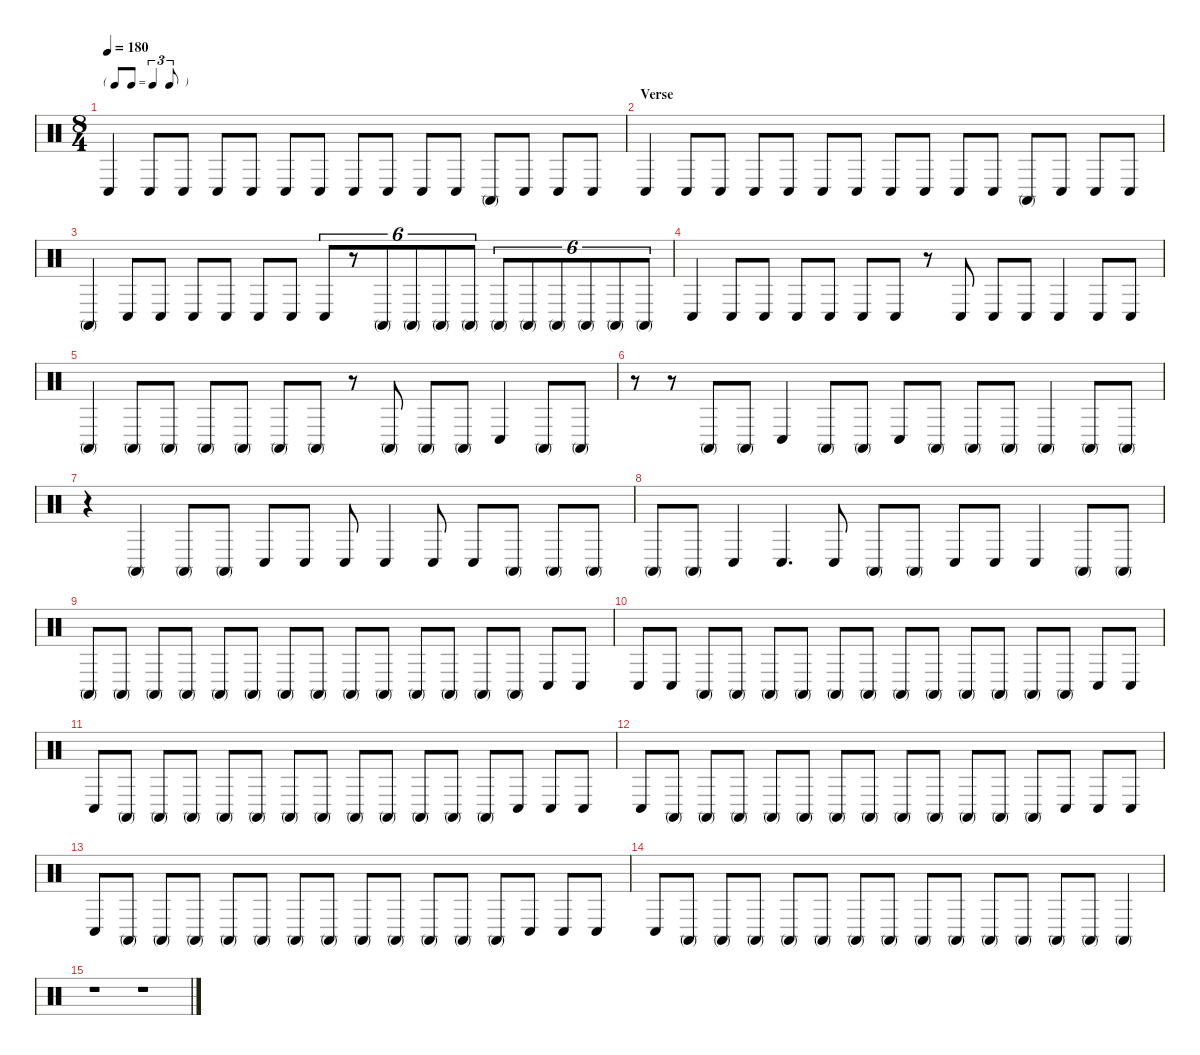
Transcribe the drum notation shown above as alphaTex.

\defaultSystemsLayout 4
\hideDynamics
\bracketExtendMode nobrackets
\singleTrackTrackNamePolicy hidden
\multiTrackTrackNamePolicy hidden
\firstSystemTrackNameMode fullname
\firstSystemTrackNameOrientation horizontal
\otherSystemsTrackNameOrientation horizontal
\track ("Congas" "drm.") {instrument percussion}
\staff {score}
\articulation defaults
\ts (8 4)
\tf triplet8th
\tempo 180
\clef neutral
\ks c "Conga low (hit)".4{dy f beam Up} "Conga low (hit)".8{beam Up} "Conga low (hit)".8{beam Up} "Conga low (hit)".8{beam Up} "Conga low (hit)".8{beam Up} "Conga low (hit)".8{beam Up} "Conga low (hit)".8{beam Up} "Conga low (hit)".8{beam Up} "Conga low (hit)".8{beam Up} "Conga low (hit)".8{beam Up} "Conga low (hit)".8{beam Up} "Conga high (mute)".8{beam Up} "Conga low (hit)".8{beam Up} "Conga low (hit)".8{beam Up} "Conga low (hit)".8{beam Up}
|
\section ("" "Verse")
"Conga low (hit)".4{beam Up} "Conga low (hit)".8{beam Up} "Conga low (hit)".8{beam Up} "Conga low (hit)".8{beam Up} "Conga low (hit)".8{beam Up} "Conga low (hit)".8{beam Up} "Conga low (hit)".8{beam Up} "Conga low (hit)".8{beam Up} "Conga low (hit)".8{beam Up} "Conga low (hit)".8{beam Up} "Conga low (hit)".8{beam Up} "Conga high (mute)".8{beam Up} "Conga low (hit)".8{beam Up} "Conga low (hit)".8{beam Up} "Conga low (hit)".8{beam Up} |
"Conga high (mute)".4{beam Up} "Conga low (hit)".8{beam Up} "Conga low (hit)".8{beam Up} "Conga low (hit)".8{beam Up} "Conga low (hit)".8{beam Up} "Conga low (hit)".8{beam Up} "Conga low (hit)".8{beam Up} "Conga low (hit)".8{tu (6 4) beam Up} r.8{tu (6 4) beam Up} "Conga high (mute)".8{tu (6 4) beam Up} "Conga high (mute)".8{tu (6 4) beam Up} "Conga high (mute)".8{tu (6 4) beam Up} "Conga high (mute)".8{tu (6 4) beam Up} "Conga high (mute)".8{tu (6 4) beam Up} "Conga high (mute)".8{tu (6 4) beam Up} "Conga high (mute)".8{tu (6 4) beam Up} "Conga high (mute)".8{tu (6 4) beam Up} "Conga high (mute)".8{tu (6 4) beam Up} "Conga high (mute)".8{tu (6 4) beam Up} |
"Conga low (hit)".4{beam Up} "Conga low (hit)".8{beam Up} "Conga low (hit)".8{beam Up} "Conga low (hit)".8{beam Up} "Conga low (hit)".8{beam Up} "Conga low (hit)".8{beam Up} "Conga low (hit)".8{beam Up} r.8{beam Up} "Conga low (hit)".8{beam Up} "Conga low (hit)".8{beam Up} "Conga low (hit)".8{beam Up} "Conga low (hit)".4{beam Up} "Conga low (hit)".8{beam Up} "Conga low (hit)".8{beam Up} |
"Conga high (mute)".4{beam Up} "Conga high (mute)".8{beam Up} "Conga high (mute)".8{beam Up} "Conga high (mute)".8{beam Up} "Conga high (mute)".8{beam Up} "Conga high (mute)".8{beam Up} "Conga high (mute)".8{beam Up} r.8{beam Up} "Conga high (mute)".8{beam Up} "Conga high (mute)".8{beam Up} "Conga high (mute)".8{beam Up} "Conga low (hit)".4{beam Up} "Conga high (mute)".8{beam Up} "Conga high (mute)".8{beam Up} |
r.8{beam Down} r.8{beam Down} "Conga high (mute)".8{beam Up} "Conga high (mute)".8{beam Up} "Conga low (hit)".4{beam Up} "Conga high (mute)".8{beam Up} "Conga high (mute)".8{beam Up} "Conga low (hit)".8{beam Up} "Conga high (mute)".8{beam Up} "Conga high (mute)".8{beam Up} "Conga high (mute)".8{beam Up} "Conga high (mute)".4{beam Up} "Conga high (mute)".8{beam Up} "Conga high (mute)".8{beam Up} |
r.4{beam Down} "Conga high (mute)".4{beam Up} "Conga high (mute)".8{beam Up} "Conga high (mute)".8{beam Up} "Conga low (hit)".8{beam Up} "Conga low (hit)".8{beam Up} "Conga low (hit)".8{beam Up} "Conga low (hit)".4{beam Up} "Conga low (hit)".8{beam Up} "Conga low (hit)".8{beam Up} "Conga high (mute)".8{beam Up} "Conga high (mute)".8{beam Up} "Conga high (mute)".8{beam Up} |
"Conga high (mute)".8{beam Up} "Conga high (mute)".8{beam Up} "Conga low (hit)".4{beam Up} "Conga low (hit)".4{d beam Up} "Conga low (hit)".8{beam Up} "Conga high (mute)".8{beam Up} "Conga high (mute)".8{beam Up} "Conga low (hit)".8{beam Up} "Conga low (hit)".8{beam Up} "Conga low (hit)".4{beam Up} "Conga high (mute)".8{beam Up} "Conga high (mute)".8{beam Up} |
"Conga high (mute)".8{beam Up} "Conga high (mute)".8{beam Up} "Conga high (mute)".8{beam Up} "Conga high (mute)".8{beam Up} "Conga high (mute)".8{beam Up} "Conga high (mute)".8{beam Up} "Conga high (mute)".8{beam Up} "Conga high (mute)".8{beam Up} "Conga high (mute)".8{beam Up} "Conga high (mute)".8{beam Up} "Conga high (mute)".8{beam Up} "Conga high (mute)".8{beam Up} "Conga high (mute)".8{beam Up} "Conga high (mute)".8{beam Up} "Conga low (hit)".8{beam Up} "Conga low (hit)".8{beam Up} |
"Conga low (hit)".8{beam Up} "Conga low (hit)".8{beam Up} "Conga high (mute)".8{beam Up} "Conga high (mute)".8{beam Up} "Conga high (mute)".8{beam Up} "Conga high (mute)".8{beam Up} "Conga high (mute)".8{beam Up} "Conga high (mute)".8{beam Up} "Conga high (mute)".8{beam Up} "Conga high (mute)".8{beam Up} "Conga high (mute)".8{beam Up} "Conga high (mute)".8{beam Up} "Conga high (mute)".8{beam Up} "Conga high (mute)".8{beam Up} "Conga low (hit)".8{beam Up} "Conga low (hit)".8{beam Up} |
"Conga low (hit)".8{beam Up} "Conga high (mute)".8{beam Up} "Conga high (mute)".8{beam Up} "Conga high (mute)".8{beam Up} "Conga high (mute)".8{beam Up} "Conga high (mute)".8{beam Up} "Conga high (mute)".8{beam Up} "Conga high (mute)".8{beam Up} "Conga high (mute)".8{beam Up} "Conga high (mute)".8{beam Up} "Conga high (mute)".8{beam Up} "Conga high (mute)".8{beam Up} "Conga high (mute)".8{beam Up} "Conga low (hit)".8{beam Up} "Conga low (hit)".8{beam Up} "Conga low (hit)".8{beam Up} |
"Conga low (hit)".8{beam Up} "Conga high (mute)".8{beam Up} "Conga high (mute)".8{beam Up} "Conga high (mute)".8{beam Up} "Conga high (mute)".8{beam Up} "Conga high (mute)".8{beam Up} "Conga high (mute)".8{beam Up} "Conga high (mute)".8{beam Up} "Conga high (mute)".8{beam Up} "Conga high (mute)".8{beam Up} "Conga high (mute)".8{beam Up} "Conga high (mute)".8{beam Up} "Conga high (mute)".8{beam Up} "Conga low (hit)".8{beam Up} "Conga low (hit)".8{beam Up} "Conga low (hit)".8{beam Up} |
"Conga low (hit)".8{beam Up} "Conga high (mute)".8{beam Up} "Conga high (mute)".8{beam Up} "Conga high (mute)".8{beam Up} "Conga high (mute)".8{beam Up} "Conga high (mute)".8{beam Up} "Conga high (mute)".8{beam Up} "Conga high (mute)".8{beam Up} "Conga high (mute)".8{beam Up} "Conga high (mute)".8{beam Up} "Conga high (mute)".8{beam Up} "Conga high (mute)".8{beam Up} "Conga high (mute)".8{beam Up} "Conga low (hit)".8{beam Up} "Conga low (hit)".8{beam Up} "Conga low (hit)".8{beam Up} |
"Conga low (hit)".8{beam Up} "Conga high (mute)".8{beam Up} "Conga high (mute)".8{beam Up} "Conga high (mute)".8{beam Up} "Conga high (mute)".8{beam Up} "Conga high (mute)".8{beam Up} "Conga high (mute)".8{beam Up} "Conga high (mute)".8{beam Up} "Conga high (mute)".8{beam Up} "Conga high (mute)".8{beam Up} "Conga high (mute)".8{beam Up} "Conga high (mute)".8{beam Up} "Conga high (mute)".8{beam Up} "Conga high (mute)".8{beam Up} "Conga high (mute)".4{beam Up} |
r.1{beam Down} r.1{beam Down}
